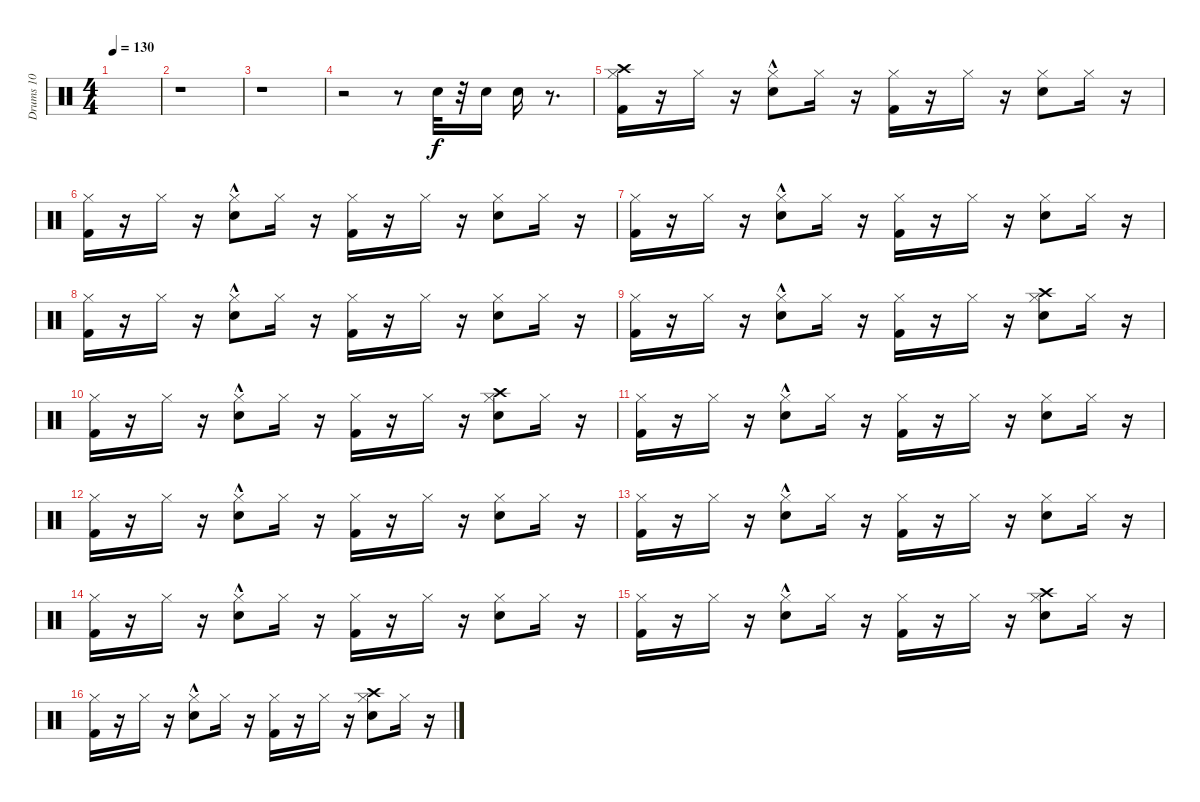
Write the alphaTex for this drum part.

\track ("Drums 10            " "Drums 10  ") {instrument percussion}
\staff {score}
\articulation defaults
\ts (4 4)
\tempo 130
\clef neutral
\ks c
|
r.1 |
r.1 |
r.2 r.8 "Snare (hit) 2".32{volume 16} r.32 "Snare (hit) 2".16 "Snare (hit) 2".16 r.8{d} |
("Kick (hit) 2" "Hi-Hat (closed)" "Crash high (hit)").16 r.16 "Hi-Hat (closed)".16 r.16 ("Snare (hit) 2"{hac} "Hi-Hat (closed)").8 "Hi-Hat (closed)".16 r.16 ("Kick (hit) 2" "Hi-Hat (closed)").16 r.16 "Hi-Hat (closed)".16 r.16 ("Snare (hit) 2" "Hi-Hat (closed)").8 "Hi-Hat (closed)".16 r.16 |
("Kick (hit) 2" "Hi-Hat (closed)").16 r.16 "Hi-Hat (closed)".16 r.16 ("Snare (hit) 2"{hac} "Hi-Hat (closed)").8 "Hi-Hat (closed)".16 r.16 ("Kick (hit) 2" "Hi-Hat (closed)").16 r.16 "Hi-Hat (closed)".16 r.16 ("Snare (hit) 2" "Hi-Hat (closed)").8 "Hi-Hat (closed)".16 r.16 |
("Kick (hit) 2" "Hi-Hat (closed)").16 r.16 "Hi-Hat (closed)".16 r.16 ("Snare (hit) 2"{hac} "Hi-Hat (closed)").8 "Hi-Hat (closed)".16 r.16 ("Kick (hit) 2" "Hi-Hat (closed)").16 r.16 "Hi-Hat (closed)".16 r.16 ("Snare (hit) 2" "Hi-Hat (closed)").8 "Hi-Hat (closed)".16 r.16 |
("Kick (hit) 2" "Hi-Hat (closed)").16 r.16 "Hi-Hat (closed)".16 r.16 ("Snare (hit) 2"{hac} "Hi-Hat (closed)").8 "Hi-Hat (closed)".16 r.16 ("Kick (hit) 2" "Hi-Hat (closed)").16 r.16 "Hi-Hat (closed)".16 r.16 ("Snare (hit) 2" "Hi-Hat (closed)").8 "Hi-Hat (closed)".16 r.16 |
("Kick (hit) 2" "Hi-Hat (closed)").16 r.16 "Hi-Hat (closed)".16 r.16 ("Snare (hit) 2"{hac} "Hi-Hat (closed)").8 "Hi-Hat (closed)".16 r.16 ("Kick (hit) 2" "Hi-Hat (closed)").16 r.16 "Hi-Hat (closed)".16 r.16 ("Snare (hit) 2" "Hi-Hat (closed)" "Crash high (hit)").8 "Hi-Hat (closed)".16 r.16 |
("Kick (hit) 2" "Hi-Hat (closed)").16 r.16 "Hi-Hat (closed)".16 r.16 ("Snare (hit) 2"{hac} "Hi-Hat (closed)").8 "Hi-Hat (closed)".16 r.16 ("Kick (hit) 2" "Hi-Hat (closed)").16 r.16 "Hi-Hat (closed)".16 r.16 ("Snare (hit) 2" "Hi-Hat (closed)" "Crash high (hit)").8 "Hi-Hat (closed)".16 r.16 |
("Kick (hit) 2" "Hi-Hat (closed)").16 r.16 "Hi-Hat (closed)".16 r.16 ("Snare (hit) 2"{hac} "Hi-Hat (closed)").8 "Hi-Hat (closed)".16 r.16 ("Kick (hit) 2" "Hi-Hat (closed)").16 r.16 "Hi-Hat (closed)".16 r.16 ("Snare (hit) 2" "Hi-Hat (closed)").8 "Hi-Hat (closed)".16 r.16 |
("Kick (hit) 2" "Hi-Hat (closed)").16 r.16 "Hi-Hat (closed)".16 r.16 ("Snare (hit) 2"{hac} "Hi-Hat (closed)").8 "Hi-Hat (closed)".16 r.16 ("Kick (hit) 2" "Hi-Hat (closed)").16 r.16 "Hi-Hat (closed)".16 r.16 ("Snare (hit) 2" "Hi-Hat (closed)").8 "Hi-Hat (closed)".16 r.16 |
("Kick (hit) 2" "Hi-Hat (closed)").16 r.16 "Hi-Hat (closed)".16 r.16 ("Snare (hit) 2"{hac} "Hi-Hat (closed)").8 "Hi-Hat (closed)".16 r.16 ("Kick (hit) 2" "Hi-Hat (closed)").16 r.16 "Hi-Hat (closed)".16 r.16 ("Snare (hit) 2" "Hi-Hat (closed)").8 "Hi-Hat (closed)".16 r.16 |
("Kick (hit) 2" "Hi-Hat (closed)").16 r.16 "Hi-Hat (closed)".16 r.16 ("Snare (hit) 2"{hac} "Hi-Hat (closed)").8 "Hi-Hat (closed)".16 r.16 ("Kick (hit) 2" "Hi-Hat (closed)").16 r.16 "Hi-Hat (closed)".16 r.16 ("Snare (hit) 2" "Hi-Hat (closed)").8 "Hi-Hat (closed)".16 r.16 |
("Kick (hit) 2" "Hi-Hat (closed)").16 r.16 "Hi-Hat (closed)".16 r.16 ("Snare (hit) 2"{hac} "Hi-Hat (closed)").8 "Hi-Hat (closed)".16 r.16 ("Kick (hit) 2" "Hi-Hat (closed)").16 r.16 "Hi-Hat (closed)".16 r.16 ("Snare (hit) 2" "Hi-Hat (closed)" "Crash high (hit)").8 "Hi-Hat (closed)".16 r.16 |
("Kick (hit) 2" "Hi-Hat (closed)").16 r.16 "Hi-Hat (closed)".16 r.16 ("Snare (hit) 2"{hac} "Hi-Hat (closed)").8 "Hi-Hat (closed)".16 r.16 ("Kick (hit) 2" "Hi-Hat (closed)").16 r.16 "Hi-Hat (closed)".16 r.16 ("Snare (hit) 2" "Hi-Hat (closed)" "Crash high (hit)").8 "Hi-Hat (closed)".16 r.16
